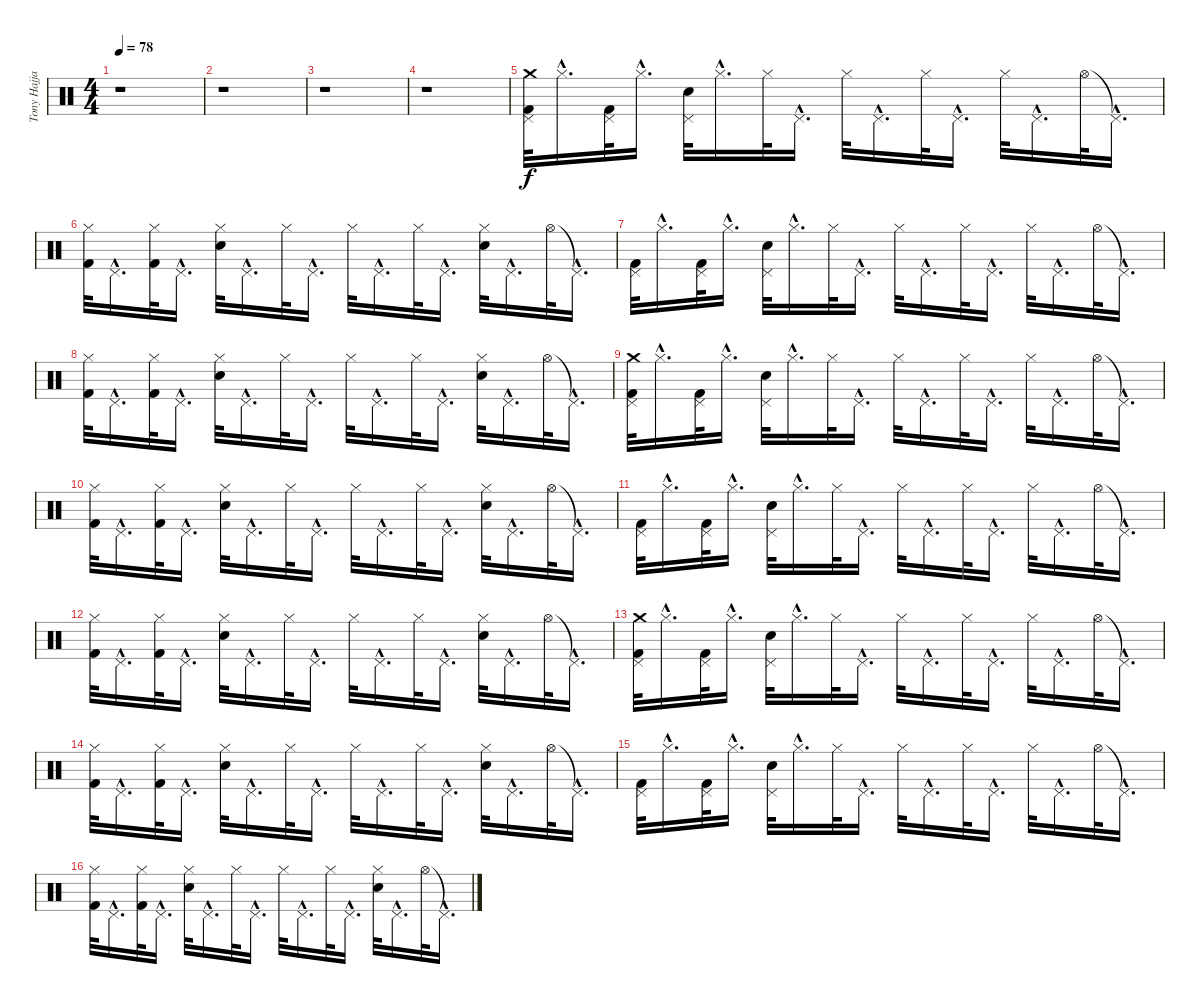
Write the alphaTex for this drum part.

\track ("Tony Hajjar" "Tony Hajja") {instrument percussion}
\staff {score}
\articulation defaults
\ts (4 4)
\tempo 78
\clef neutral
\ks c
r.1{dy f} |
r.1 |
r.1 |
r.1 |
("Crash medium (hit)" "Pedal Hi-Hat (hit)" "Kick (hit) 2").32 "Hi-Hat (closed)"{hac}.16{d} ("Pedal Hi-Hat (hit)" "Kick (hit) 2").32 "Hi-Hat (closed)"{hac}.16{d} ("Pedal Hi-Hat (hit)" "Electric Snare (hit)").32 "Hi-Hat (closed)"{hac}.16{d} "Hi-Hat (closed)".32 "Pedal Hi-Hat (hit)"{hac}.16{d} "Hi-Hat (closed)".32 "Pedal Hi-Hat (hit)"{hac}.16{d} "Hi-Hat (closed)".32 "Pedal Hi-Hat (hit)"{hac}.16{d} "Hi-Hat (closed)".32 "Pedal Hi-Hat (hit)"{hac}.16{d} "Hi-Hat (open)".32 "Pedal Hi-Hat (hit)"{hac t}.16{d} |
("Hi-Hat (closed)" "Kick (hit) 2").32 "Pedal Hi-Hat (hit)"{hac}.16{d} ("Hi-Hat (closed)" "Kick (hit) 2").32 "Pedal Hi-Hat (hit)"{hac}.16{d} ("Hi-Hat (closed)" "Electric Snare (hit)").32 "Pedal Hi-Hat (hit)"{hac}.16{d} "Hi-Hat (closed)".32 "Pedal Hi-Hat (hit)"{hac}.16{d} "Hi-Hat (closed)".32 "Pedal Hi-Hat (hit)"{hac}.16{d} "Hi-Hat (closed)".32 "Pedal Hi-Hat (hit)"{hac}.16{d} ("Hi-Hat (closed)" "Electric Snare (hit)").32 "Pedal Hi-Hat (hit)"{hac}.16{d} "Hi-Hat (open)".32 "Pedal Hi-Hat (hit)"{hac t}.16{d} |
("Pedal Hi-Hat (hit)" "Kick (hit) 2").32 "Hi-Hat (closed)"{hac}.16{d} ("Pedal Hi-Hat (hit)" "Kick (hit) 2").32 "Hi-Hat (closed)"{hac}.16{d} ("Pedal Hi-Hat (hit)" "Electric Snare (hit)").32 "Hi-Hat (closed)"{hac}.16{d} "Hi-Hat (closed)".32 "Pedal Hi-Hat (hit)"{hac}.16{d} "Hi-Hat (closed)".32 "Pedal Hi-Hat (hit)"{hac}.16{d} "Hi-Hat (closed)".32 "Pedal Hi-Hat (hit)"{hac}.16{d} "Hi-Hat (closed)".32 "Pedal Hi-Hat (hit)"{hac}.16{d} "Hi-Hat (open)".32 "Pedal Hi-Hat (hit)"{hac t}.16{d} |
("Hi-Hat (closed)" "Kick (hit) 2").32 "Pedal Hi-Hat (hit)"{hac}.16{d} ("Hi-Hat (closed)" "Kick (hit) 2").32 "Pedal Hi-Hat (hit)"{hac}.16{d} ("Hi-Hat (closed)" "Electric Snare (hit)").32 "Pedal Hi-Hat (hit)"{hac}.16{d} "Hi-Hat (closed)".32 "Pedal Hi-Hat (hit)"{hac}.16{d} "Hi-Hat (closed)".32 "Pedal Hi-Hat (hit)"{hac}.16{d} "Hi-Hat (closed)".32 "Pedal Hi-Hat (hit)"{hac}.16{d} ("Hi-Hat (closed)" "Electric Snare (hit)").32 "Pedal Hi-Hat (hit)"{hac}.16{d} "Hi-Hat (open)".32 "Pedal Hi-Hat (hit)"{hac t}.16{d} |
("Crash medium (hit)" "Pedal Hi-Hat (hit)" "Kick (hit) 2").32 "Hi-Hat (closed)"{hac}.16{d} ("Pedal Hi-Hat (hit)" "Kick (hit) 2").32 "Hi-Hat (closed)"{hac}.16{d} ("Pedal Hi-Hat (hit)" "Electric Snare (hit)").32 "Hi-Hat (closed)"{hac}.16{d} "Hi-Hat (closed)".32 "Pedal Hi-Hat (hit)"{hac}.16{d} "Hi-Hat (closed)".32 "Pedal Hi-Hat (hit)"{hac}.16{d} "Hi-Hat (closed)".32 "Pedal Hi-Hat (hit)"{hac}.16{d} "Hi-Hat (closed)".32 "Pedal Hi-Hat (hit)"{hac}.16{d} "Hi-Hat (open)".32 "Pedal Hi-Hat (hit)"{hac t}.16{d} |
("Hi-Hat (closed)" "Kick (hit) 2").32 "Pedal Hi-Hat (hit)"{hac}.16{d} ("Hi-Hat (closed)" "Kick (hit) 2").32 "Pedal Hi-Hat (hit)"{hac}.16{d} ("Hi-Hat (closed)" "Electric Snare (hit)").32 "Pedal Hi-Hat (hit)"{hac}.16{d} "Hi-Hat (closed)".32 "Pedal Hi-Hat (hit)"{hac}.16{d} "Hi-Hat (closed)".32 "Pedal Hi-Hat (hit)"{hac}.16{d} "Hi-Hat (closed)".32 "Pedal Hi-Hat (hit)"{hac}.16{d} ("Hi-Hat (closed)" "Electric Snare (hit)").32 "Pedal Hi-Hat (hit)"{hac}.16{d} "Hi-Hat (open)".32 "Pedal Hi-Hat (hit)"{hac t}.16{d} |
("Pedal Hi-Hat (hit)" "Kick (hit) 2").32 "Hi-Hat (closed)"{hac}.16{d} ("Pedal Hi-Hat (hit)" "Kick (hit) 2").32 "Hi-Hat (closed)"{hac}.16{d} ("Pedal Hi-Hat (hit)" "Electric Snare (hit)").32 "Hi-Hat (closed)"{hac}.16{d} "Hi-Hat (closed)".32 "Pedal Hi-Hat (hit)"{hac}.16{d} "Hi-Hat (closed)".32 "Pedal Hi-Hat (hit)"{hac}.16{d} "Hi-Hat (closed)".32 "Pedal Hi-Hat (hit)"{hac}.16{d} "Hi-Hat (closed)".32 "Pedal Hi-Hat (hit)"{hac}.16{d} "Hi-Hat (open)".32 "Pedal Hi-Hat (hit)"{hac t}.16{d} |
("Hi-Hat (closed)" "Kick (hit) 2").32 "Pedal Hi-Hat (hit)"{hac}.16{d} ("Hi-Hat (closed)" "Kick (hit) 2").32 "Pedal Hi-Hat (hit)"{hac}.16{d} ("Hi-Hat (closed)" "Electric Snare (hit)").32 "Pedal Hi-Hat (hit)"{hac}.16{d} "Hi-Hat (closed)".32 "Pedal Hi-Hat (hit)"{hac}.16{d} "Hi-Hat (closed)".32 "Pedal Hi-Hat (hit)"{hac}.16{d} "Hi-Hat (closed)".32 "Pedal Hi-Hat (hit)"{hac}.16{d} ("Hi-Hat (closed)" "Electric Snare (hit)").32 "Pedal Hi-Hat (hit)"{hac}.16{d} "Hi-Hat (open)".32 "Pedal Hi-Hat (hit)"{hac t}.16{d} |
("Crash medium (hit)" "Pedal Hi-Hat (hit)" "Kick (hit) 2").32 "Hi-Hat (closed)"{hac}.16{d} ("Pedal Hi-Hat (hit)" "Kick (hit) 2").32 "Hi-Hat (closed)"{hac}.16{d} ("Pedal Hi-Hat (hit)" "Electric Snare (hit)").32 "Hi-Hat (closed)"{hac}.16{d} "Hi-Hat (closed)".32 "Pedal Hi-Hat (hit)"{hac}.16{d} "Hi-Hat (closed)".32 "Pedal Hi-Hat (hit)"{hac}.16{d} "Hi-Hat (closed)".32 "Pedal Hi-Hat (hit)"{hac}.16{d} "Hi-Hat (closed)".32 "Pedal Hi-Hat (hit)"{hac}.16{d} "Hi-Hat (open)".32 "Pedal Hi-Hat (hit)"{hac t}.16{d} |
("Hi-Hat (closed)" "Kick (hit) 2").32 "Pedal Hi-Hat (hit)"{hac}.16{d} ("Hi-Hat (closed)" "Kick (hit) 2").32 "Pedal Hi-Hat (hit)"{hac}.16{d} ("Hi-Hat (closed)" "Electric Snare (hit)").32 "Pedal Hi-Hat (hit)"{hac}.16{d} "Hi-Hat (closed)".32 "Pedal Hi-Hat (hit)"{hac}.16{d} "Hi-Hat (closed)".32 "Pedal Hi-Hat (hit)"{hac}.16{d} "Hi-Hat (closed)".32 "Pedal Hi-Hat (hit)"{hac}.16{d} ("Hi-Hat (closed)" "Electric Snare (hit)").32 "Pedal Hi-Hat (hit)"{hac}.16{d} "Hi-Hat (open)".32 "Pedal Hi-Hat (hit)"{hac t}.16{d} |
("Pedal Hi-Hat (hit)" "Kick (hit) 2").32 "Hi-Hat (closed)"{hac}.16{d} ("Pedal Hi-Hat (hit)" "Kick (hit) 2").32 "Hi-Hat (closed)"{hac}.16{d} ("Pedal Hi-Hat (hit)" "Electric Snare (hit)").32 "Hi-Hat (closed)"{hac}.16{d} "Hi-Hat (closed)".32 "Pedal Hi-Hat (hit)"{hac}.16{d} "Hi-Hat (closed)".32 "Pedal Hi-Hat (hit)"{hac}.16{d} "Hi-Hat (closed)".32 "Pedal Hi-Hat (hit)"{hac}.16{d} "Hi-Hat (closed)".32 "Pedal Hi-Hat (hit)"{hac}.16{d} "Hi-Hat (open)".32 "Pedal Hi-Hat (hit)"{hac t}.16{d} |
("Hi-Hat (closed)" "Kick (hit) 2").32 "Pedal Hi-Hat (hit)"{hac}.16{d} ("Hi-Hat (closed)" "Kick (hit) 2").32 "Pedal Hi-Hat (hit)"{hac}.16{d} ("Hi-Hat (closed)" "Electric Snare (hit)").32 "Pedal Hi-Hat (hit)"{hac}.16{d} "Hi-Hat (closed)".32 "Pedal Hi-Hat (hit)"{hac}.16{d} "Hi-Hat (closed)".32 "Pedal Hi-Hat (hit)"{hac}.16{d} "Hi-Hat (closed)".32 "Pedal Hi-Hat (hit)"{hac}.16{d} ("Hi-Hat (closed)" "Electric Snare (hit)").32 "Pedal Hi-Hat (hit)"{hac}.16{d} "Hi-Hat (open)".32 "Pedal Hi-Hat (hit)"{hac t}.16{d}
